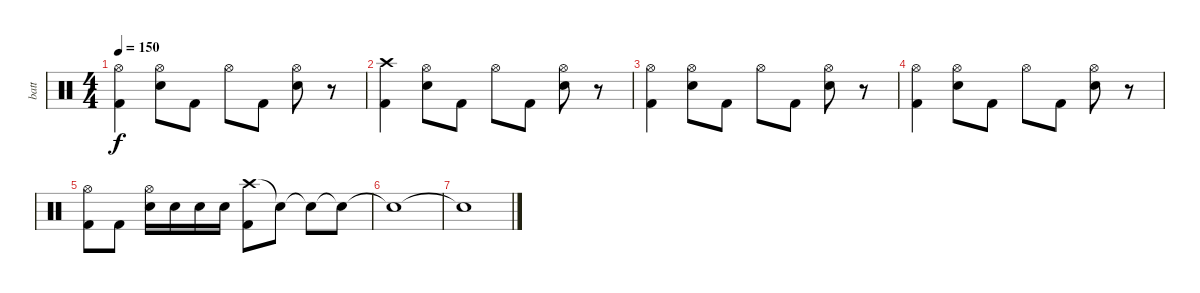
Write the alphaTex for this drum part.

\track ("batt" "batt") {instrument percussion}
\staff {score}
\articulation defaults
\ts (4 4)
\tempo 150
\clef neutral
\ks c
("Hi-Hat (open)" "Kick (hit) 2").4{dy f} ("Hi-Hat (open)" "Electric Snare (hit)").8 "Kick (hit) 2".8 "Hi-Hat (open)".8 "Kick (hit) 2".8 ("Hi-Hat (open)" "Electric Snare (hit)").8 r.8 |
("Crash high (hit)" "Kick (hit) 2").4 ("Hi-Hat (open)" "Electric Snare (hit)").8 "Kick (hit) 2".8 "Hi-Hat (open)".8 "Kick (hit) 2".8 ("Hi-Hat (open)" "Electric Snare (hit)").8 r.8 |
("Hi-Hat (open)" "Kick (hit) 2").4 ("Hi-Hat (open)" "Electric Snare (hit)").8 "Kick (hit) 2".8 "Hi-Hat (open)".8 "Kick (hit) 2".8 ("Hi-Hat (open)" "Electric Snare (hit)").8 r.8 |
("Hi-Hat (open)" "Kick (hit) 2").4 ("Hi-Hat (open)" "Electric Snare (hit)").8 "Kick (hit) 2".8 "Hi-Hat (open)".8 "Kick (hit) 2".8 ("Hi-Hat (open)" "Electric Snare (hit)").8 r.8 |
("Hi-Hat (open)" "Kick (hit) 2").8 "Kick (hit) 2".8 ("Hi-Hat (open)" "Electric Snare (hit)").16 "Electric Snare (hit)".16 "Electric Snare (hit)".16 "Electric Snare (hit)".16 ("Crash high (hit)" "Kick (hit) 2").8 "Snare (hit)"{t}.8 "Snare (hit)"{t}.8 "Snare (hit)"{t}.8 |
"Snare (hit)"{t}.1 |
"Snare (hit)"{t}.1
